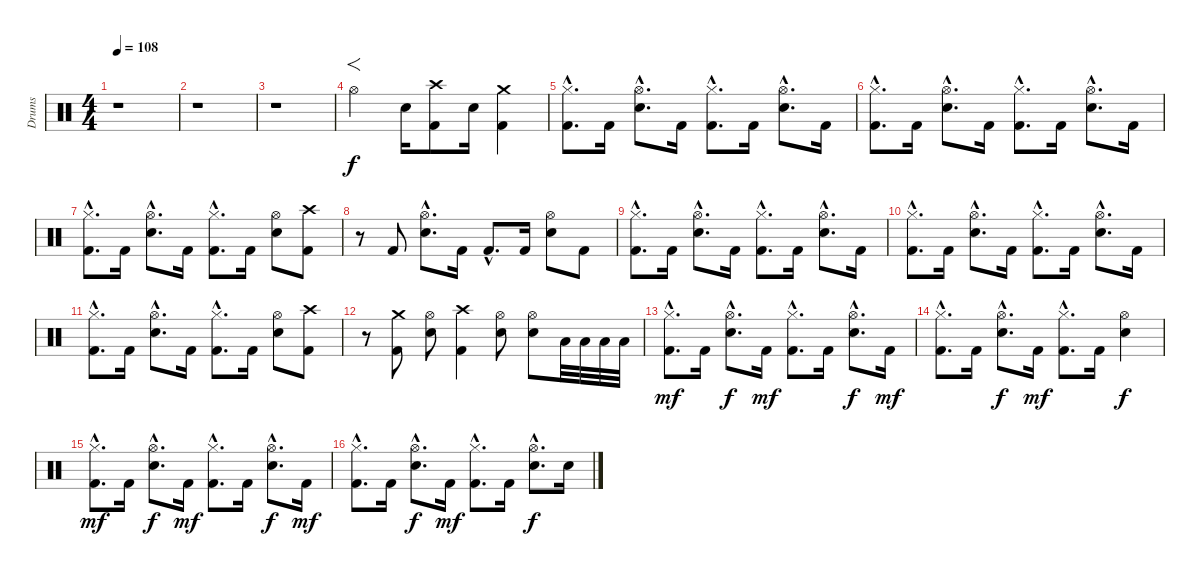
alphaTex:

\track ("Drums" "Drums") {instrument percussion}
\staff {score}
\articulation defaults
\ts (4 4)
\tempo 108
\clef neutral
\ks c
r.1{dy f} |
r.1 |
r.1 |
"Hi-Hat (open)".2{f} "Snare (hit) 2".16 ("Kick (hit) 2" "Crash high (hit)").8 "Snare (hit) 2".16 ("Kick (hit) 2" "Crash medium (hit)").4 |
("Kick (hit) 2"{hac} "Hi-Hat (closed)"{hac}).8{d} "Kick (hit) 2".16 ("Snare (hit) 2"{hac} "Hi-Hat (open)"{hac}).8{d} "Kick (hit) 2".16 ("Kick (hit) 2"{hac} "Hi-Hat (closed)"{hac}).8{d} "Kick (hit) 2".16 ("Snare (hit) 2"{hac} "Hi-Hat (open)"{hac}).8{d} "Kick (hit) 2".16 |
("Kick (hit) 2"{hac} "Hi-Hat (closed)"{hac}).8{d} "Kick (hit) 2".16 ("Snare (hit) 2"{hac} "Hi-Hat (open)"{hac}).8{d} "Kick (hit) 2".16 ("Kick (hit) 2"{hac} "Hi-Hat (closed)"{hac}).8{d} "Kick (hit) 2".16 ("Snare (hit) 2"{hac} "Hi-Hat (open)"{hac}).8{d} "Kick (hit) 2".16 |
("Kick (hit) 2"{hac} "Hi-Hat (closed)"{hac}).8{d} "Kick (hit) 2".16 ("Snare (hit) 2"{hac} "Hi-Hat (open)"{hac}).8{d} "Kick (hit) 2".16 ("Kick (hit) 2"{hac} "Hi-Hat (closed)"{hac}).8{d} "Kick (hit) 2".16 ("Snare (hit) 2" "Hi-Hat (open)").8 ("Kick (hit) 2" "Crash high (hit)").8 |
r.8 "Kick (hit) 2".8 ("Snare (hit) 2"{hac} "Hi-Hat (open)"{hac}).8{d} "Kick (hit) 2".16 "Kick (hit) 2"{hac}.8{d} "Kick (hit) 2".16 ("Snare (hit) 2" "Hi-Hat (open)").8 "Kick (hit) 2".8 |
("Kick (hit) 2"{hac} "Hi-Hat (closed)"{hac}).8{d} "Kick (hit) 2".16 ("Snare (hit) 2"{hac} "Hi-Hat (open)"{hac}).8{d} "Kick (hit) 2".16 ("Kick (hit) 2"{hac} "Hi-Hat (closed)"{hac}).8{d} "Kick (hit) 2".16 ("Snare (hit) 2"{hac} "Hi-Hat (open)"{hac}).8{d} "Kick (hit) 2".16 |
("Kick (hit) 2"{hac} "Hi-Hat (closed)"{hac}).8{d} "Kick (hit) 2".16 ("Snare (hit) 2"{hac} "Hi-Hat (open)"{hac}).8{d} "Kick (hit) 2".16 ("Kick (hit) 2"{hac} "Hi-Hat (closed)"{hac}).8{d} "Kick (hit) 2".16 ("Snare (hit) 2"{hac} "Hi-Hat (open)"{hac}).8{d} "Kick (hit) 2".16 |
("Kick (hit) 2"{hac} "Hi-Hat (closed)"{hac}).8{d} "Kick (hit) 2".16 ("Snare (hit) 2"{hac} "Hi-Hat (open)"{hac}).8{d} "Kick (hit) 2".16 ("Kick (hit) 2"{hac} "Hi-Hat (closed)"{hac}).8{d} "Kick (hit) 2".16 ("Snare (hit) 2" "Hi-Hat (open)").8 ("Kick (hit) 2" "Crash high (hit)").8 |
r.8 ("Kick (hit) 2" "Crash medium (hit)").8 ("Snare (hit) 2" "Hi-Hat (open)").8 ("Kick (hit) 2" "Crash high (hit)").4 ("Snare (hit) 2" "Hi-Hat (open)").8 ("Snare (hit) 2" "Hi-Hat (open)").8 "Low Tom (hit)".32 "Low Tom (hit)".32 "Low Tom (hit)".32 "Low Tom (hit)".32 |
("Kick (hit) 2"{hac} "Hi-Hat (closed)"{hac}).8{d dy mf} "Kick (hit) 2".16 ("Snare (hit) 2"{hac} "Hi-Hat (open)"{hac}).8{d dy f} "Kick (hit) 2".16{dy mf} ("Kick (hit) 2"{hac} "Hi-Hat (closed)"{hac}).8{d} "Kick (hit) 2".16 ("Snare (hit) 2"{hac} "Hi-Hat (open)"{hac}).8{d dy f} "Kick (hit) 2".16{dy mf} |
("Kick (hit) 2"{hac} "Hi-Hat (closed)"{hac}).8{d} "Kick (hit) 2".16 ("Snare (hit) 2"{hac} "Hi-Hat (open)"{hac}).8{d dy f} "Kick (hit) 2".16{dy mf} ("Kick (hit) 2"{hac} "Hi-Hat (closed)"{hac}).8{d} "Kick (hit) 2".16 ("Snare (hit) 2" "Hi-Hat (open)").4{dy f} |
("Kick (hit) 2"{hac} "Hi-Hat (closed)"{hac}).8{d dy mf} "Kick (hit) 2".16 ("Snare (hit) 2"{hac} "Hi-Hat (open)"{hac}).8{d dy f} "Kick (hit) 2".16{dy mf} ("Kick (hit) 2"{hac} "Hi-Hat (closed)"{hac}).8{d} "Kick (hit) 2".16 ("Snare (hit) 2"{hac} "Hi-Hat (open)"{hac}).8{d dy f} "Kick (hit) 2".16{dy mf} |
("Kick (hit) 2"{hac} "Hi-Hat (closed)"{hac}).8{d} "Kick (hit) 2".16 ("Snare (hit) 2"{hac} "Hi-Hat (open)"{hac}).8{d dy f} "Kick (hit) 2".16{dy mf} ("Kick (hit) 2"{hac} "Hi-Hat (closed)"{hac}).8{d} "Kick (hit) 2".16 ("Snare (hit) 2"{hac} "Hi-Hat (open)"{hac}).8{d dy f} "Snare (hit) 2".16
